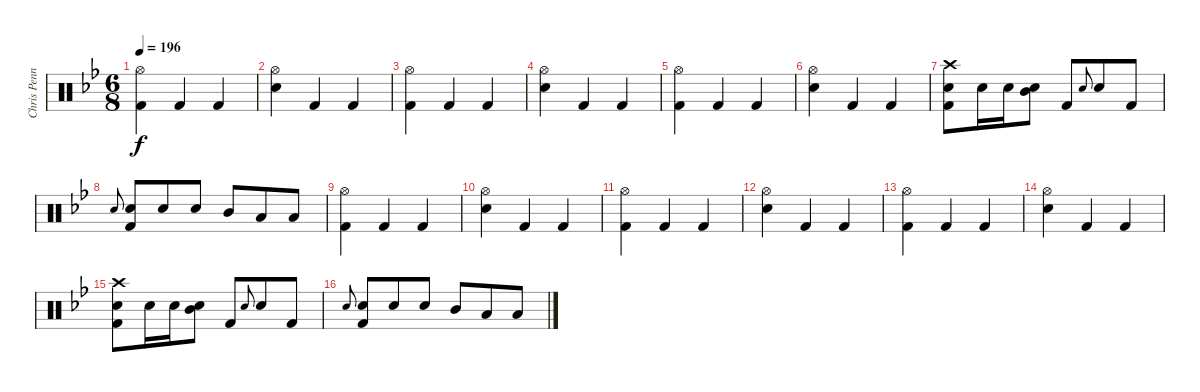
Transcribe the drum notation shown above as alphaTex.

\track ("Chris Pennie/Taylor Hawkins - Drum" "Chris Penn") {instrument percussion}
\staff {score}
\articulation defaults
\ts (6 8)
\tempo 196
\clef neutral
\ks bb
("Hi-Hat (open)" "Kick (hit) 2").4{dy f} "Kick (hit) 2".4 "Kick (hit) 2".4 |
("Hi-Hat (open)" "Electric Snare (hit)").4 "Kick (hit) 2".4 "Kick (hit) 2".4 |
("Hi-Hat (open)" "Kick (hit) 2").4 "Kick (hit) 2".4 "Kick (hit) 2".4 |
("Hi-Hat (open)" "Electric Snare (hit)").4 "Kick (hit) 2".4 "Kick (hit) 2".4 |
("Hi-Hat (open)" "Kick (hit) 2").4 "Kick (hit) 2".4 "Kick (hit) 2".4 |
("Hi-Hat (open)" "Electric Snare (hit)").4 "Kick (hit) 2".4 "Kick (hit) 2".4 |
("Crash high (hit)" "Electric Snare (hit)" "Kick (hit) 2").8 "Electric Snare (hit)".16 "Electric Snare (hit)".16 ("Electric Snare (hit)" "Mid Tom (hit)").8 "Kick (hit) 2".8 "Electric Snare (hit)".8{gr onbeat} "Electric Snare (hit)".8 "Kick (hit) 2".8 |
"Electric Snare (hit)".8{gr onbeat} ("Electric Snare (hit)" "Kick (hit) 2").8 "Electric Snare (hit)".8 "Electric Snare (hit)".8 "Mid Tom (hit)".8 "Low Tom (hit)".8 "Low Floor Tom (hit)".8 |
("Hi-Hat (open)" "Kick (hit) 2").4 "Kick (hit) 2".4 "Kick (hit) 2".4 |
("Hi-Hat (open)" "Electric Snare (hit)").4 "Kick (hit) 2".4 "Kick (hit) 2".4 |
("Hi-Hat (open)" "Kick (hit) 2").4 "Kick (hit) 2".4 "Kick (hit) 2".4 |
("Hi-Hat (open)" "Electric Snare (hit)").4 "Kick (hit) 2".4 "Kick (hit) 2".4 |
("Hi-Hat (open)" "Kick (hit) 2").4 "Kick (hit) 2".4 "Kick (hit) 2".4 |
("Hi-Hat (open)" "Electric Snare (hit)").4 "Kick (hit) 2".4 "Kick (hit) 2".4 |
("Crash high (hit)" "Electric Snare (hit)" "Kick (hit) 2").8 "Electric Snare (hit)".16 "Electric Snare (hit)".16 ("Electric Snare (hit)" "Mid Tom (hit)").8 "Kick (hit) 2".8 "Electric Snare (hit)".8{gr onbeat} "Electric Snare (hit)".8 "Kick (hit) 2".8 |
"Electric Snare (hit)".8{gr onbeat} ("Electric Snare (hit)" "Kick (hit) 2").8 "Electric Snare (hit)".8 "Electric Snare (hit)".8 "Mid Tom (hit)".8 "Low Tom (hit)".8 "Low Floor Tom (hit)".8
